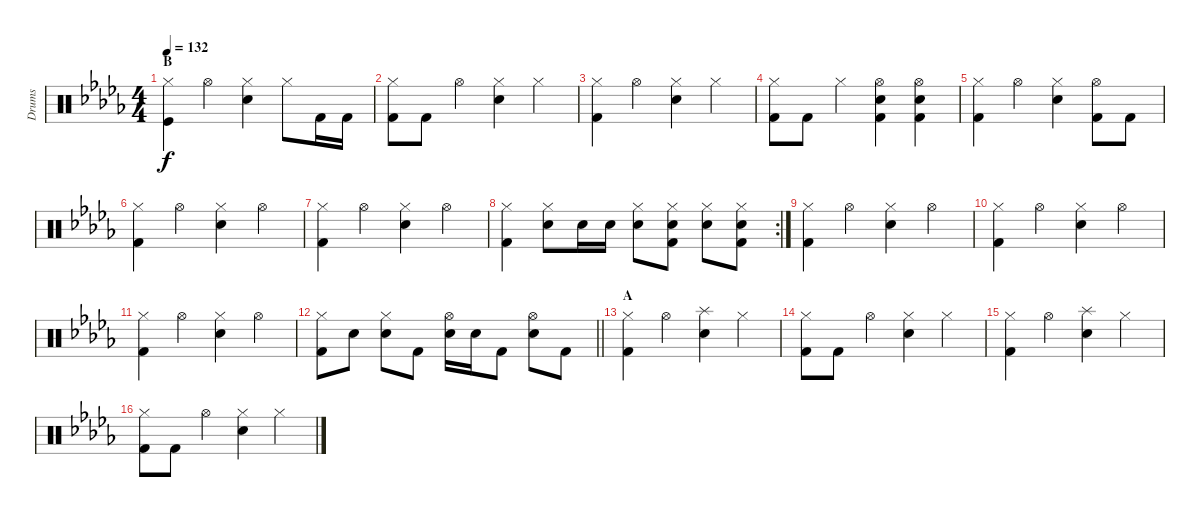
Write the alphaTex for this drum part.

\track ("Drums" "Drums") {instrument percussion}
\staff {score}
\articulation defaults
\ts (4 4)
\section ("" "B")
\tempo 132
\clef neutral
\ks db
("Kick (hit)" "Hi-Hat (closed)").4{dy f} "Hi-Hat (open)".4 ("Snare (hit) 2" "Hi-Hat (closed)").4 "Hi-Hat (closed)".8 "Kick (hit) 2".16 "Kick (hit) 2".16 |
("Kick (hit) 2" "Hi-Hat (closed)").8 "Kick (hit) 2".8 "Hi-Hat (open)".4 ("Snare (hit) 2" "Hi-Hat (closed)").4 "Hi-Hat (closed)".4 |
("Kick (hit) 2" "Hi-Hat (closed)").4 "Hi-Hat (open)".4 ("Snare (hit) 2" "Hi-Hat (closed)").4 "Hi-Hat (closed)".4 |
("Kick (hit) 2" "Hi-Hat (closed)").8 "Kick (hit) 2".8 "Hi-Hat (closed)".4 ("Snare (hit) 2" "Hi-Hat (open)" "Kick (hit) 2").4 ("Kick (hit) 2" "Snare (hit) 2" "Hi-Hat (open)").4 |
("Kick (hit) 2" "Hi-Hat (closed)").4 "Hi-Hat (open)".4 ("Snare (hit) 2" "Hi-Hat (closed)").4 ("Hi-Hat (open)" "Kick (hit) 2").8 "Kick (hit) 2".8 |
("Kick (hit) 2" "Hi-Hat (closed)").4 "Hi-Hat (open)".4 ("Snare (hit) 2" "Hi-Hat (closed)").4 "Hi-Hat (open)".4 |
("Kick (hit) 2" "Hi-Hat (closed)").4 "Hi-Hat (open)".4 ("Snare (hit) 2" "Hi-Hat (closed)").4 "Hi-Hat (open)".4 |
\rc 2
("Kick (hit) 2" "Hi-Hat (closed)").4 ("Snare (hit) 2" "Hi-Hat (closed)").8 "Snare (hit) 2".16 "Snare (hit) 2".16 ("Snare (hit) 2" "Hi-Hat (closed)").8 ("Snare (hit) 2" "Hi-Hat (closed)" "Kick (hit) 2").8 ("Snare (hit) 2" "Hi-Hat (closed)").8 ("Snare (hit) 2" "Hi-Hat (closed)" "Kick (hit) 2").8 |
("Kick (hit) 2" "Hi-Hat (closed)").4 "Hi-Hat (open)".4 ("Snare (hit) 2" "Hi-Hat (closed)").4 "Hi-Hat (open)".4 |
("Kick (hit) 2" "Hi-Hat (closed)").4 "Hi-Hat (open)".4 ("Snare (hit) 2" "Hi-Hat (closed)").4 "Hi-Hat (open)".4 |
("Kick (hit) 2" "Hi-Hat (closed)").4 "Hi-Hat (open)".4 ("Snare (hit) 2" "Hi-Hat (closed)").4 "Hi-Hat (open)".4 |
\barLineRight lightlight
("Kick (hit) 2" "Hi-Hat (closed)").8 "Snare (hit) 2".8 ("Snare (hit) 2" "Hi-Hat (closed)").8 "Kick (hit) 2".8 ("Snare (hit) 2" "Hi-Hat (open)").16 "Snare (hit) 2".16 "Kick (hit) 2".8 ("Snare (hit) 2" "Hi-Hat (open)").8 "Kick (hit) 2".8 |
\section ("" "A")
("Kick (hit) 2" "Hi-Hat (closed)").4 "Hi-Hat (open)".4 ("Splash (hit)" "Snare (hit) 2").4 "Hi-Hat (closed)".4 |
("Kick (hit) 2" "Hi-Hat (closed)").8 "Kick (hit) 2".8 "Hi-Hat (open)".4 ("Hand Clap (hit)" "Hi-Hat (closed)").4 "Hi-Hat (closed)".4 |
("Kick (hit) 2" "Hi-Hat (closed)").4 "Hi-Hat (open)".4 ("Splash (hit)" "Snare (hit) 2").4 "Hi-Hat (closed)".4 |
("Kick (hit) 2" "Hi-Hat (closed)").8 "Kick (hit) 2".8 "Hi-Hat (open)".4 ("Hand Clap (hit)" "Hi-Hat (closed)").4 "Hi-Hat (closed)".4
